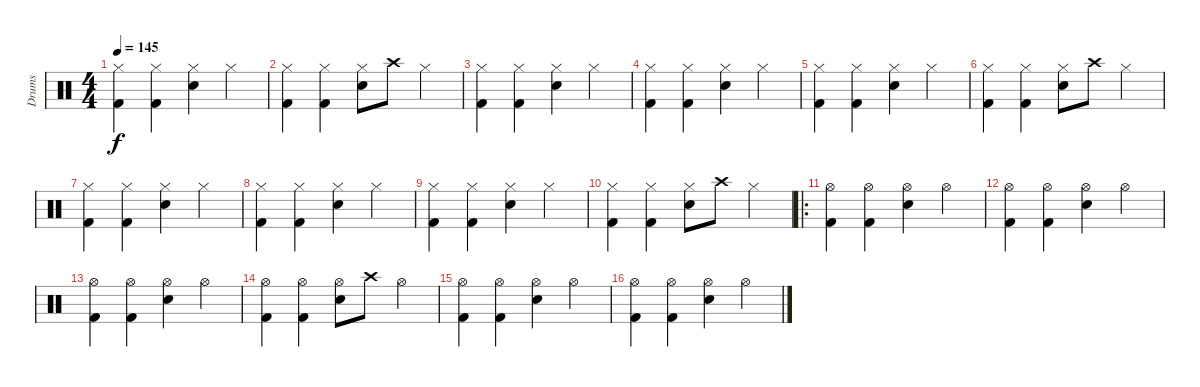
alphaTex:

\track ("Drums" "Drums") {instrument percussion}
\staff {score}
\articulation defaults
\ts (4 4)
\tempo 145
\clef neutral
\ks c
("Hi-Hat (closed)" "Kick (hit) 2").4{dy f} ("Hi-Hat (closed)" "Kick (hit) 2").4 ("Hi-Hat (closed)" "Electric Snare (hit)").4 "Hi-Hat (closed)".4 |
("Hi-Hat (closed)" "Kick (hit) 2").4 ("Hi-Hat (closed)" "Kick (hit) 2").4 ("Hi-Hat (closed)" "Electric Snare (hit)").8 "Crash high (hit)".8 "Hi-Hat (closed)".4 |
("Hi-Hat (closed)" "Kick (hit) 2").4 ("Hi-Hat (closed)" "Kick (hit) 2").4 ("Hi-Hat (closed)" "Electric Snare (hit)").4 "Hi-Hat (closed)".4 |
("Hi-Hat (closed)" "Kick (hit) 2").4 ("Hi-Hat (closed)" "Kick (hit) 2").4 ("Hi-Hat (closed)" "Electric Snare (hit)").4 "Hi-Hat (closed)".4 |
("Hi-Hat (closed)" "Kick (hit) 2").4 ("Hi-Hat (closed)" "Kick (hit) 2").4 ("Hi-Hat (closed)" "Electric Snare (hit)").4 "Hi-Hat (closed)".4 |
("Hi-Hat (closed)" "Kick (hit) 2").4 ("Hi-Hat (closed)" "Kick (hit) 2").4 ("Hi-Hat (closed)" "Electric Snare (hit)").8 "Crash high (hit)".8 "Hi-Hat (closed)".4 |
("Hi-Hat (closed)" "Kick (hit) 2").4 ("Hi-Hat (closed)" "Kick (hit) 2").4 ("Hi-Hat (closed)" "Electric Snare (hit)").4 "Hi-Hat (closed)".4 |
("Hi-Hat (closed)" "Kick (hit) 2").4 ("Hi-Hat (closed)" "Kick (hit) 2").4 ("Hi-Hat (closed)" "Electric Snare (hit)").4 "Hi-Hat (closed)".4 |
("Hi-Hat (closed)" "Kick (hit) 2").4 ("Hi-Hat (closed)" "Kick (hit) 2").4 ("Hi-Hat (closed)" "Electric Snare (hit)").4 "Hi-Hat (closed)".4 |
("Hi-Hat (closed)" "Kick (hit) 2").4 ("Hi-Hat (closed)" "Kick (hit) 2").4 ("Hi-Hat (closed)" "Electric Snare (hit)").8 "Crash high (hit)".8 "Hi-Hat (closed)".4 |
\ro
("Hi-Hat (open)" "Kick (hit) 2").4 ("Hi-Hat (open)" "Kick (hit) 2").4 ("Hi-Hat (open)" "Electric Snare (hit)").4 "Hi-Hat (open)".4 |
("Hi-Hat (open)" "Kick (hit) 2").4 ("Hi-Hat (open)" "Kick (hit) 2").4 ("Hi-Hat (open)" "Electric Snare (hit)").4 "Hi-Hat (open)".4 |
("Hi-Hat (open)" "Kick (hit) 2").4 ("Hi-Hat (open)" "Kick (hit) 2").4 ("Hi-Hat (open)" "Electric Snare (hit)").4 "Hi-Hat (open)".4 |
("Hi-Hat (open)" "Kick (hit) 2").4 ("Hi-Hat (open)" "Kick (hit) 2").4 ("Hi-Hat (open)" "Electric Snare (hit)").8 "Crash high (hit)".8 "Hi-Hat (open)".4 |
("Hi-Hat (open)" "Kick (hit) 2").4 ("Hi-Hat (open)" "Kick (hit) 2").4 ("Hi-Hat (open)" "Electric Snare (hit)").4 "Hi-Hat (open)".4 |
("Hi-Hat (open)" "Kick (hit) 2").4 ("Hi-Hat (open)" "Kick (hit) 2").4 ("Hi-Hat (open)" "Electric Snare (hit)").4 "Hi-Hat (open)".4
